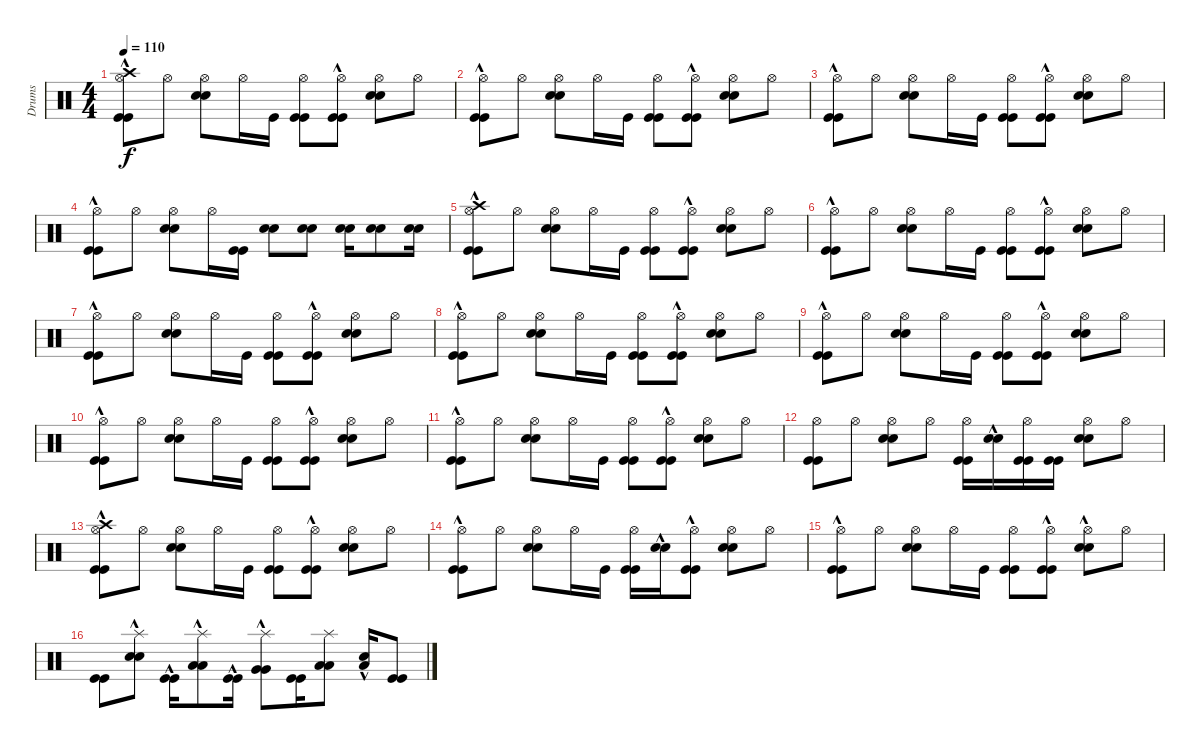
\track ("Drums" "Drums") {instrument percussion}
\staff {score}
\articulation defaults
\ts (4 4)
\tempo 110
\clef neutral
\ks c
("Kick (hit)"{hac} "Kick (hit)"{hac} "Hi-Hat (open)" "Crash high (hit)").8{dy f} "Hi-Hat (open)".8 ("Snare (hit) 2" "Snare (hit) 2" "Hi-Hat (open)").8 "Hi-Hat (open)".16 "Kick (hit)".16 ("Kick (hit)" "Kick (hit)" "Hi-Hat (open)").8 ("Kick (hit)"{hac} "Kick (hit)"{hac} "Hi-Hat (open)").8 ("Snare (hit) 2" "Snare (hit) 2" "Hi-Hat (open)").8 "Hi-Hat (open)".8 |
("Kick (hit)"{hac} "Kick (hit)"{hac} "Hi-Hat (open)").8 "Hi-Hat (open)".8 ("Snare (hit) 2" "Snare (hit) 2" "Hi-Hat (open)").8 "Hi-Hat (open)".16 "Kick (hit)".16 ("Kick (hit)" "Kick (hit)" "Hi-Hat (open)").8 ("Kick (hit)"{hac} "Kick (hit)"{hac} "Hi-Hat (open)").8 ("Snare (hit) 2" "Snare (hit) 2" "Hi-Hat (open)").8 "Hi-Hat (open)".8 |
("Kick (hit)"{hac} "Kick (hit)"{hac} "Hi-Hat (open)").8 "Hi-Hat (open)".8 ("Snare (hit) 2" "Snare (hit) 2" "Hi-Hat (open)").8 "Hi-Hat (open)".16 "Kick (hit)".16 ("Kick (hit)" "Kick (hit)" "Hi-Hat (open)").8 ("Kick (hit)"{hac} "Kick (hit)"{hac} "Hi-Hat (open)").8 ("Snare (hit) 2" "Snare (hit) 2" "Hi-Hat (open)").8 "Hi-Hat (open)".8 |
("Kick (hit)"{hac} "Kick (hit)"{hac} "Hi-Hat (open)").8 "Hi-Hat (open)".8 ("Snare (hit) 2" "Snare (hit) 2" "Hi-Hat (open)").8 "Hi-Hat (open)".16 ("Kick (hit)" "Kick (hit)").16 ("Snare (hit) 2" "Snare (hit) 2").8 ("Snare (hit) 2" "Snare (hit) 2").8 ("Snare (hit) 2" "Snare (hit) 2").16 ("Snare (hit) 2" "Snare (hit) 2").8 ("Snare (hit) 2" "Snare (hit) 2").16 |
("Kick (hit)"{hac} "Kick (hit)"{hac} "Hi-Hat (open)" "Crash high (hit)").8 "Hi-Hat (open)".8 ("Snare (hit) 2" "Snare (hit) 2" "Hi-Hat (open)").8 "Hi-Hat (open)".16 "Kick (hit)".16 ("Kick (hit)" "Kick (hit)" "Hi-Hat (open)").8 ("Kick (hit)"{hac} "Kick (hit)"{hac} "Hi-Hat (open)").8 ("Snare (hit) 2" "Snare (hit) 2" "Hi-Hat (open)").8 "Hi-Hat (open)".8 |
("Kick (hit)"{hac} "Kick (hit)"{hac} "Hi-Hat (open)").8 "Hi-Hat (open)".8 ("Snare (hit) 2" "Snare (hit) 2" "Hi-Hat (open)").8 "Hi-Hat (open)".16 "Kick (hit)".16 ("Kick (hit)" "Kick (hit)" "Hi-Hat (open)").8 ("Kick (hit)"{hac} "Kick (hit)"{hac} "Hi-Hat (open)").8 ("Snare (hit) 2" "Snare (hit) 2" "Hi-Hat (open)").8 "Hi-Hat (open)".8 |
("Kick (hit)"{hac} "Kick (hit)"{hac} "Hi-Hat (open)").8 "Hi-Hat (open)".8 ("Snare (hit) 2" "Snare (hit) 2" "Hi-Hat (open)").8 "Hi-Hat (open)".16 "Kick (hit)".16 ("Kick (hit)" "Kick (hit)" "Hi-Hat (open)").8 ("Kick (hit)"{hac} "Kick (hit)"{hac} "Hi-Hat (open)").8 ("Snare (hit) 2" "Snare (hit) 2" "Hi-Hat (open)").8 "Hi-Hat (open)".8 |
("Kick (hit)"{hac} "Kick (hit)"{hac} "Hi-Hat (open)").8 "Hi-Hat (open)".8 ("Snare (hit) 2" "Snare (hit) 2" "Hi-Hat (open)").8 "Hi-Hat (open)".16 "Kick (hit)".16 ("Kick (hit)" "Kick (hit)" "Hi-Hat (open)").8 ("Kick (hit)"{hac} "Kick (hit)"{hac} "Hi-Hat (open)").8 ("Snare (hit) 2" "Snare (hit) 2" "Hi-Hat (open)").8 "Hi-Hat (open)".8 |
("Kick (hit)"{hac} "Kick (hit)"{hac} "Hi-Hat (open)").8 "Hi-Hat (open)".8 ("Snare (hit) 2" "Snare (hit) 2" "Hi-Hat (open)").8 "Hi-Hat (open)".16 "Kick (hit)".16 ("Kick (hit)" "Kick (hit)" "Hi-Hat (open)").8 ("Kick (hit)"{hac} "Kick (hit)"{hac} "Hi-Hat (open)").8 ("Snare (hit) 2" "Snare (hit) 2" "Hi-Hat (open)").8 "Hi-Hat (open)".8 |
("Kick (hit)"{hac} "Kick (hit)"{hac} "Hi-Hat (open)").8 "Hi-Hat (open)".8 ("Snare (hit) 2" "Snare (hit) 2" "Hi-Hat (open)").8 "Hi-Hat (open)".16 "Kick (hit)".16 ("Kick (hit)" "Kick (hit)" "Hi-Hat (open)").8 ("Kick (hit)"{hac} "Kick (hit)"{hac} "Hi-Hat (open)").8 ("Snare (hit) 2" "Snare (hit) 2" "Hi-Hat (open)").8 "Hi-Hat (open)".8 |
("Kick (hit)"{hac} "Kick (hit)"{hac} "Hi-Hat (open)").8 "Hi-Hat (open)".8 ("Snare (hit) 2" "Snare (hit) 2" "Hi-Hat (open)").8 "Hi-Hat (open)".16 "Kick (hit)".16 ("Kick (hit)" "Kick (hit)" "Hi-Hat (open)").8 ("Kick (hit)"{hac} "Kick (hit)"{hac} "Hi-Hat (open)").8 ("Snare (hit) 2" "Snare (hit) 2" "Hi-Hat (open)").8 "Hi-Hat (open)".8 |
("Kick (hit)" "Kick (hit)" "Hi-Hat (open)").8 "Hi-Hat (open)".8 ("Snare (hit) 2" "Snare (hit) 2" "Hi-Hat (open)").8 "Hi-Hat (open)".8 ("Kick (hit)" "Kick (hit)" "Hi-Hat (open)").16 ("Snare (hit) 2"{hac} "Snare (hit) 2"{hac}).16 ("Kick (hit)" "Kick (hit)" "Hi-Hat (open)").16 ("Kick (hit)" "Kick (hit)").16 ("Snare (hit) 2" "Snare (hit) 2" "Hi-Hat (open)").8 "Hi-Hat (open)".8 |
("Kick (hit)"{hac} "Kick (hit)"{hac} "Hi-Hat (open)" "Crash high (hit)").8 "Hi-Hat (open)".8 ("Snare (hit) 2" "Snare (hit) 2" "Hi-Hat (open)").8 "Hi-Hat (open)".16 "Kick (hit)".16 ("Kick (hit)" "Kick (hit)" "Hi-Hat (open)").8 ("Kick (hit)"{hac} "Kick (hit)"{hac} "Hi-Hat (open)").8 ("Snare (hit) 2" "Snare (hit) 2" "Hi-Hat (open)").8 "Hi-Hat (open)".8 |
("Kick (hit)"{hac} "Kick (hit)"{hac} "Hi-Hat (open)").8 "Hi-Hat (open)".8 ("Snare (hit) 2" "Snare (hit) 2" "Hi-Hat (open)").8 "Hi-Hat (open)".16 "Kick (hit)".16 ("Kick (hit)" "Kick (hit)" "Hi-Hat (open)").16 ("Snare (hit) 2"{hac} "Snare (hit) 2"{hac}).16 ("Kick (hit)"{hac} "Kick (hit)"{hac} "Hi-Hat (open)").8 ("Snare (hit) 2" "Snare (hit) 2" "Hi-Hat (open)").8 "Hi-Hat (open)".8 |
("Kick (hit)"{hac} "Kick (hit)"{hac} "Hi-Hat (open)").8 "Hi-Hat (open)".8 ("Snare (hit) 2" "Snare (hit) 2" "Hi-Hat (open)").8 "Hi-Hat (open)".16 "Kick (hit)".16 ("Kick (hit)" "Kick (hit)" "Hi-Hat (open)").8 ("Kick (hit)"{hac} "Kick (hit)"{hac} "Hi-Hat (open)").8 ("Snare (hit) 2"{hac} "Snare (hit) 2"{hac} "Hi-Hat (open)").8 "Hi-Hat (open)".8 |
("Kick (hit)" "Kick (hit)").8 ("Snare (hit) 2"{hac} "Snare (hit) 2"{hac} "Splash (hit)"{hac}).8 ("Kick (hit)"{hac} "Kick (hit)"{hac}).16 ("Low Tom (hit)" "Low Tom (hit)" "Splash (hit)"{hac}).8 ("Kick (hit)"{hac} "Kick (hit)"{hac}).16 ("Very Low Tom (hit)" "Very Low Tom (hit)" "Splash (hit)"{hac}).8 ("Kick (hit)" "Kick (hit)").16 ("Low Floor Tom (hit)" "Low Floor Tom (hit)" "Splash (hit)").8 ("Snare (hit) 2"{hac} "Low Floor Tom (hit)"{hac}).16 ("Kick (hit)" "Kick (hit)").8
